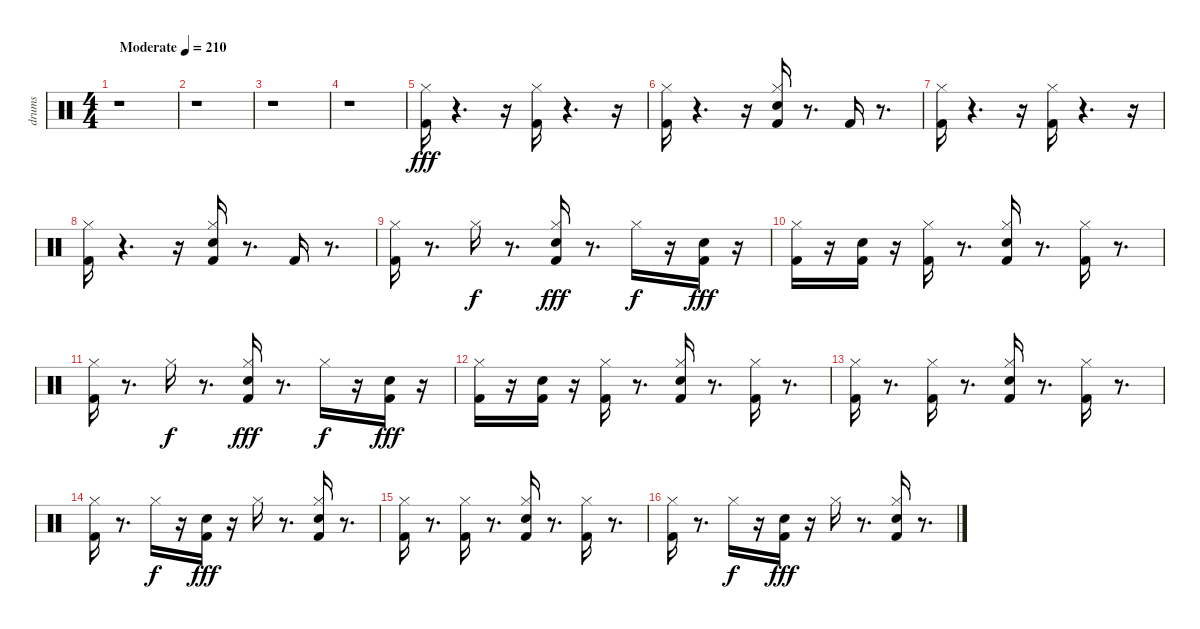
\track ("drums" "drums") {instrument percussion}
\staff {score}
\articulation defaults
\ts (4 4)
\tempo (210 "Moderate")
\clef neutral
\ks c
r.1{dy fff} |
r.1 |
r.1 |
r.1 |
("Kick (hit) 2" "Hi-Hat (closed)").16 r.4{d} r.16 ("Kick (hit) 2" "Hi-Hat (closed)").16 r.4{d} r.16 |
("Kick (hit) 2" "Hi-Hat (closed)").16 r.4{d} r.16 ("Kick (hit) 2" "Electric Snare (hit)" "Hi-Hat (closed)").16 r.8{d} "Kick (hit) 2".16 r.8{d} |
("Kick (hit) 2" "Hi-Hat (closed)").16 r.4{d} r.16 ("Kick (hit) 2" "Hi-Hat (closed)").16 r.4{d} r.16 |
("Kick (hit) 2" "Hi-Hat (closed)").16 r.4{d} r.16 ("Kick (hit) 2" "Electric Snare (hit)" "Hi-Hat (closed)").16 r.8{d} "Kick (hit) 2".16 r.8{d} |
("Hi-Hat (closed)" "Kick (hit) 2").16 r.8{d} "Hi-Hat (closed)".16{dy f} r.8{d} ("Electric Snare (hit)" "Hi-Hat (closed)" "Kick (hit) 2").16{dy fff} r.8{d} "Hi-Hat (closed)".16{dy f} r.16 ("Electric Snare (hit)" "Kick (hit) 2").16{dy fff} r.16 |
("Hi-Hat (closed)" "Kick (hit) 2").16 r.16 ("Electric Snare (hit)" "Kick (hit) 2").16 r.16 ("Hi-Hat (closed)" "Kick (hit) 2").16 r.8{d} ("Electric Snare (hit)" "Hi-Hat (closed)" "Kick (hit) 2").16 r.8{d} ("Hi-Hat (closed)" "Kick (hit) 2").16 r.8{d} |
("Kick (hit) 2" "Hi-Hat (closed)").16 r.8{d} "Hi-Hat (closed)".16{dy f} r.8{d} ("Electric Snare (hit)" "Hi-Hat (closed)" "Kick (hit) 2").16{dy fff} r.8{d} "Hi-Hat (closed)".16{dy f} r.16 ("Electric Snare (hit)" "Kick (hit) 2").16{dy fff} r.16 |
("Hi-Hat (closed)" "Kick (hit) 2").16 r.16 ("Electric Snare (hit)" "Kick (hit) 2").16 r.16 ("Hi-Hat (closed)" "Kick (hit) 2").16 r.8{d} ("Electric Snare (hit)" "Hi-Hat (closed)" "Kick (hit) 2").16 r.8{d} ("Hi-Hat (closed)" "Kick (hit) 2").16 r.8{d} |
("Kick (hit) 2" "Hi-Hat (closed)").16 r.8{d} ("Hi-Hat (closed)" "Kick (hit) 2").16 r.8{d} ("Electric Snare (hit)" "Hi-Hat (closed)" "Kick (hit) 2").16 r.8{d} ("Hi-Hat (closed)" "Kick (hit) 2").16 r.8{d} |
("Hi-Hat (closed)" "Kick (hit) 2").16 r.8{d} "Hi-Hat (closed)".16{dy f} r.16 ("Electric Snare (hit)" "Kick (hit) 2").16{dy fff} r.16 "Hi-Hat (closed)".16 r.8{d} ("Electric Snare (hit)" "Hi-Hat (closed)" "Kick (hit) 2").16 r.8{d} |
("Hi-Hat (closed)" "Kick (hit) 2").16 r.8{d} ("Hi-Hat (closed)" "Kick (hit) 2").16 r.8{d} ("Electric Snare (hit)" "Hi-Hat (closed)" "Kick (hit) 2").16 r.8{d} ("Hi-Hat (closed)" "Kick (hit) 2").16 r.8{d} |
("Hi-Hat (closed)" "Kick (hit) 2").16 r.8{d} "Hi-Hat (closed)".16{dy f} r.16 ("Electric Snare (hit)" "Kick (hit) 2").16{dy fff} r.16 "Hi-Hat (closed)".16 r.8{d} ("Electric Snare (hit)" "Hi-Hat (closed)" "Kick (hit) 2").16 r.8{d}
